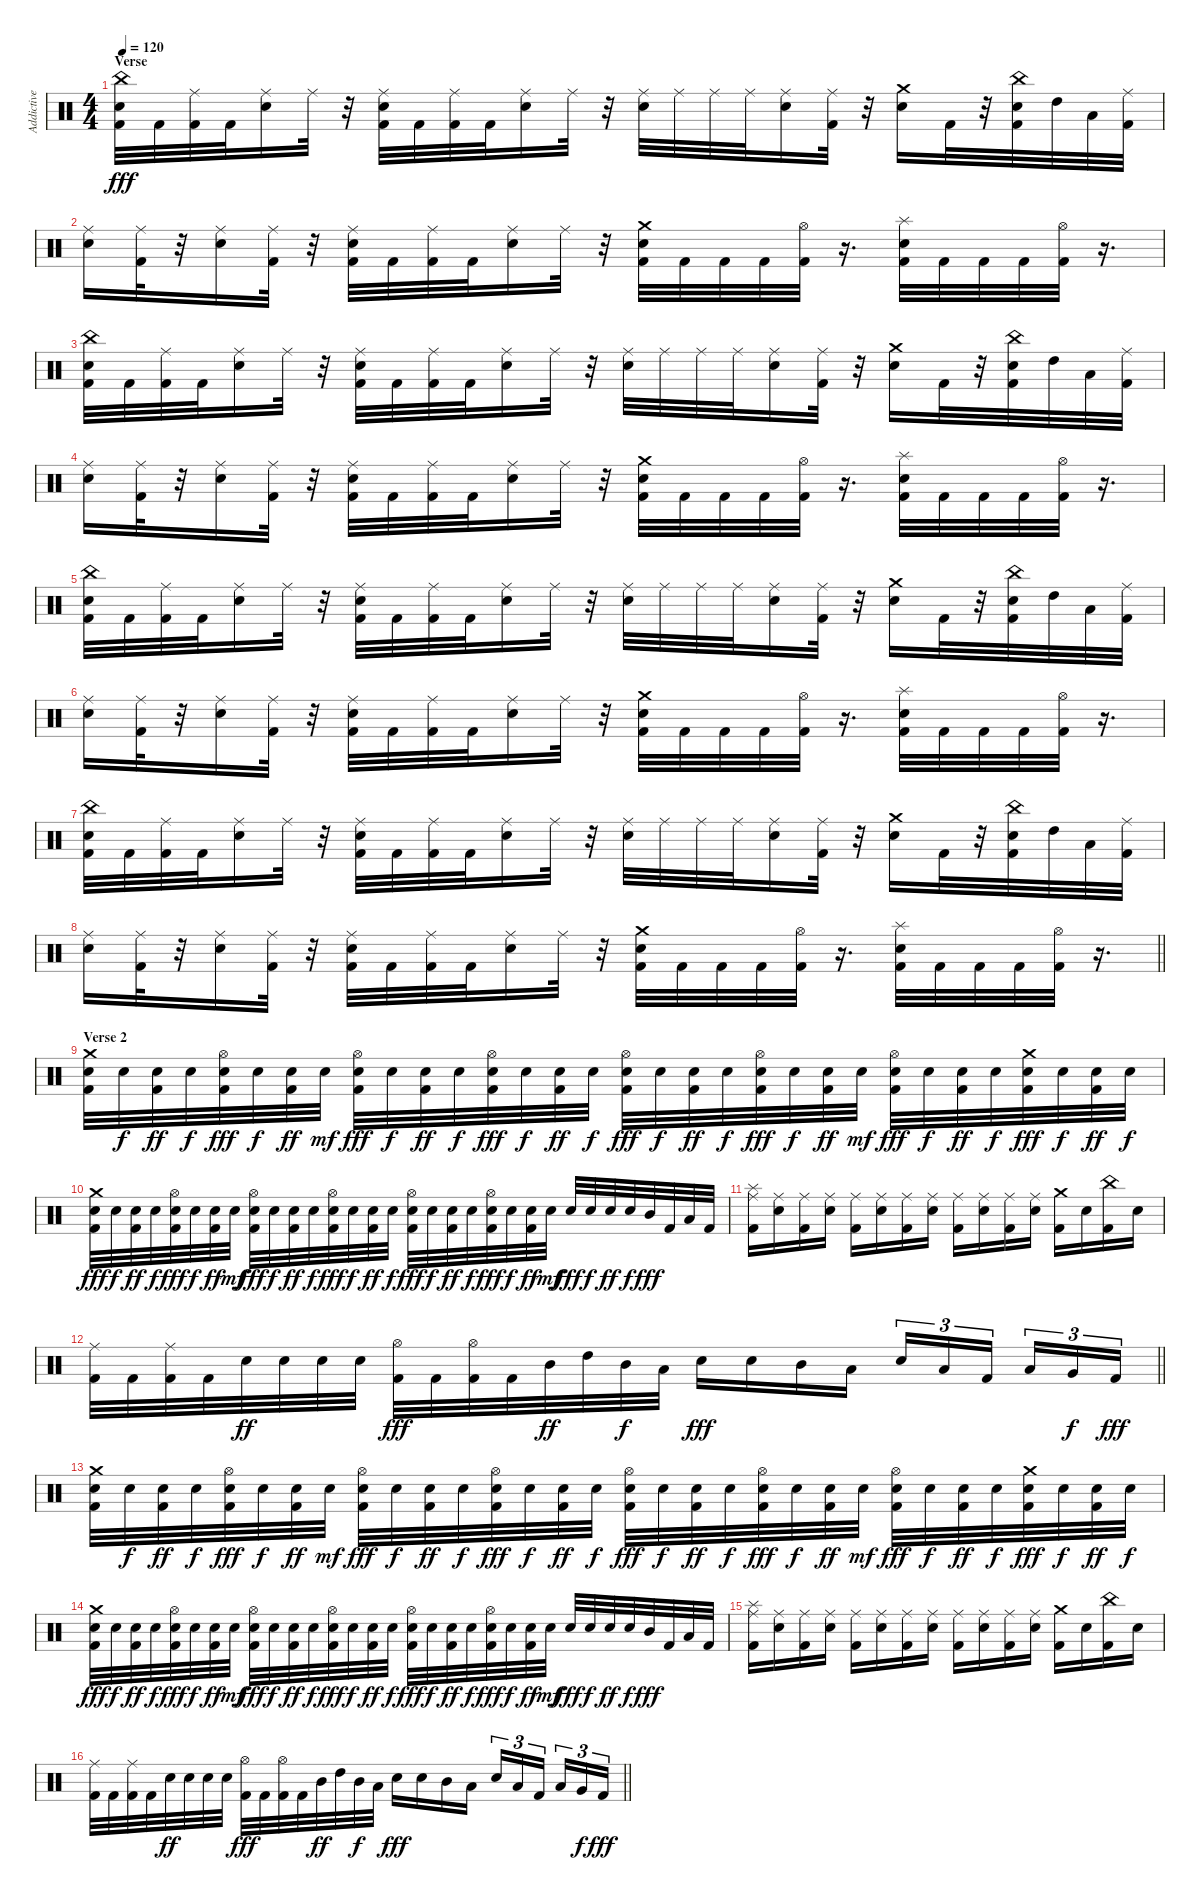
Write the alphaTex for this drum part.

\track ("Addictive Drums 07" "Addictive ") {instrument percussion}
\staff {score}
\articulation defaults
\ts (4 4)
\section ("" "Verse")
\tempo 120
\clef neutral
\ks c
("Kick (hit) 2" "Snare (hit) 2" "China (hit)").32{dy fff} "Kick (hit) 2".32 ("Kick (hit) 2" "Ride (middle)").32 "Kick (hit) 2".32 ("Snare (hit) 2" "Ride (middle)").16 "Ride (middle)".32 r.32 ("Kick (hit) 2" "Snare (hit) 2" "Ride (middle)").32 "Kick (hit) 2".32 ("Kick (hit) 2" "Ride (middle)").32 "Kick (hit) 2".32 ("Snare (hit) 2" "Ride (middle)").16 "Ride (middle)".32 r.32 ("Snare (hit) 2" "Ride (middle)").32 "Ride (middle)".32 "Ride (middle)".32 "Ride (middle)".32 ("Snare (hit) 2" "Ride (middle)").16 ("Kick (hit) 2" "Ride (middle)").32 r.32 ("Snare (hit) 2" "Crash medium (hit)").16 "Kick (hit) 2".32 r.32 ("Kick (hit) 2" "Snare (hit) 2" "China (hit)").32 "High Tom (hit)".32 "Low Tom (hit)".32 ("Kick (hit) 2" "Ride (middle)").32 |
("Snare (hit) 2" "Ride (middle)").16 ("Kick (hit) 2" "Ride (middle)").32 r.32 ("Snare (hit) 2" "Ride (middle)").16 ("Kick (hit) 2" "Ride (middle)").32 r.32 ("Kick (hit) 2" "Snare (hit) 2" "Ride (middle)").32 "Kick (hit) 2".32 ("Kick (hit) 2" "Ride (middle)").32 "Kick (hit) 2".32 ("Snare (hit) 2" "Ride (middle)").16 "Ride (middle)".32 r.32 ("Kick (hit) 2" "Snare (hit) 2" "Crash medium (hit)").32 "Kick (hit) 2".32 "Kick (hit) 2".32 "Kick (hit) 2".32 ("Kick (hit) 2" "Hi-Hat (open)").32 r.16{d} ("Kick (hit) 2" "Snare (hit) 2" "Splash (hit)").32 "Kick (hit) 2".32 "Kick (hit) 2".32 "Kick (hit) 2".32 ("Kick (hit) 2" "Hi-Hat (open)").32 r.16{d} |
("Kick (hit) 2" "Snare (hit) 2" "China (hit)").32 "Kick (hit) 2".32 ("Kick (hit) 2" "Ride (middle)").32 "Kick (hit) 2".32 ("Snare (hit) 2" "Ride (middle)").16 "Ride (middle)".32 r.32 ("Kick (hit) 2" "Snare (hit) 2" "Ride (middle)").32 "Kick (hit) 2".32 ("Kick (hit) 2" "Ride (middle)").32 "Kick (hit) 2".32 ("Snare (hit) 2" "Ride (middle)").16 "Ride (middle)".32 r.32 ("Snare (hit) 2" "Ride (middle)").32 "Ride (middle)".32 "Ride (middle)".32 "Ride (middle)".32 ("Snare (hit) 2" "Ride (middle)").16 ("Kick (hit) 2" "Ride (middle)").32 r.32 ("Snare (hit) 2" "Crash medium (hit)").16 "Kick (hit) 2".32 r.32 ("Kick (hit) 2" "Snare (hit) 2" "China (hit)").32 "High Tom (hit)".32 "Low Tom (hit)".32 ("Kick (hit) 2" "Ride (middle)").32 |
("Snare (hit) 2" "Ride (middle)").16 ("Kick (hit) 2" "Ride (middle)").32 r.32 ("Snare (hit) 2" "Ride (middle)").16 ("Kick (hit) 2" "Ride (middle)").32 r.32 ("Kick (hit) 2" "Snare (hit) 2" "Ride (middle)").32 "Kick (hit) 2".32 ("Kick (hit) 2" "Ride (middle)").32 "Kick (hit) 2".32 ("Snare (hit) 2" "Ride (middle)").16 "Ride (middle)".32 r.32 ("Kick (hit) 2" "Snare (hit) 2" "Crash medium (hit)").32 "Kick (hit) 2".32 "Kick (hit) 2".32 "Kick (hit) 2".32 ("Kick (hit) 2" "Hi-Hat (open)").32 r.16{d} ("Kick (hit) 2" "Snare (hit) 2" "Splash (hit)").32 "Kick (hit) 2".32 "Kick (hit) 2".32 "Kick (hit) 2".32 ("Kick (hit) 2" "Hi-Hat (open)").32 r.16{d} |
("Kick (hit) 2" "Snare (hit) 2" "China (hit)").32 "Kick (hit) 2".32 ("Kick (hit) 2" "Ride (middle)").32 "Kick (hit) 2".32 ("Snare (hit) 2" "Ride (middle)").16 "Ride (middle)".32 r.32 ("Kick (hit) 2" "Snare (hit) 2" "Ride (middle)").32 "Kick (hit) 2".32 ("Kick (hit) 2" "Ride (middle)").32 "Kick (hit) 2".32 ("Snare (hit) 2" "Ride (middle)").16 "Ride (middle)".32 r.32 ("Snare (hit) 2" "Ride (middle)").32 "Ride (middle)".32 "Ride (middle)".32 "Ride (middle)".32 ("Snare (hit) 2" "Ride (middle)").16 ("Kick (hit) 2" "Ride (middle)").32 r.32 ("Snare (hit) 2" "Crash medium (hit)").16 "Kick (hit) 2".32 r.32 ("Kick (hit) 2" "Snare (hit) 2" "China (hit)").32 "High Tom (hit)".32 "Low Tom (hit)".32 ("Kick (hit) 2" "Ride (middle)").32 |
("Snare (hit) 2" "Ride (middle)").16 ("Kick (hit) 2" "Ride (middle)").32 r.32 ("Snare (hit) 2" "Ride (middle)").16 ("Kick (hit) 2" "Ride (middle)").32 r.32 ("Kick (hit) 2" "Snare (hit) 2" "Ride (middle)").32 "Kick (hit) 2".32 ("Kick (hit) 2" "Ride (middle)").32 "Kick (hit) 2".32 ("Snare (hit) 2" "Ride (middle)").16 "Ride (middle)".32 r.32 ("Kick (hit) 2" "Snare (hit) 2" "Crash medium (hit)").32 "Kick (hit) 2".32 "Kick (hit) 2".32 "Kick (hit) 2".32 ("Kick (hit) 2" "Hi-Hat (open)").32 r.16{d} ("Kick (hit) 2" "Snare (hit) 2" "Splash (hit)").32 "Kick (hit) 2".32 "Kick (hit) 2".32 "Kick (hit) 2".32 ("Kick (hit) 2" "Hi-Hat (open)").32 r.16{d} |
("Kick (hit) 2" "Snare (hit) 2" "China (hit)").32 "Kick (hit) 2".32 ("Kick (hit) 2" "Ride (middle)").32 "Kick (hit) 2".32 ("Snare (hit) 2" "Ride (middle)").16 "Ride (middle)".32 r.32 ("Kick (hit) 2" "Snare (hit) 2" "Ride (middle)").32 "Kick (hit) 2".32 ("Kick (hit) 2" "Ride (middle)").32 "Kick (hit) 2".32 ("Snare (hit) 2" "Ride (middle)").16 "Ride (middle)".32 r.32 ("Snare (hit) 2" "Ride (middle)").32 "Ride (middle)".32 "Ride (middle)".32 "Ride (middle)".32 ("Snare (hit) 2" "Ride (middle)").16 ("Kick (hit) 2" "Ride (middle)").32 r.32 ("Snare (hit) 2" "Crash medium (hit)").16 "Kick (hit) 2".32 r.32 ("Kick (hit) 2" "Snare (hit) 2" "China (hit)").32 "High Tom (hit)".32 "Low Tom (hit)".32 ("Kick (hit) 2" "Ride (middle)").32 |
\barLineRight lightlight
("Snare (hit) 2" "Ride (middle)").16 ("Kick (hit) 2" "Ride (middle)").32 r.32 ("Snare (hit) 2" "Ride (middle)").16 ("Kick (hit) 2" "Ride (middle)").32 r.32 ("Kick (hit) 2" "Snare (hit) 2" "Ride (middle)").32 "Kick (hit) 2".32 ("Kick (hit) 2" "Ride (middle)").32 "Kick (hit) 2".32 ("Snare (hit) 2" "Ride (middle)").16 "Ride (middle)".32 r.32 ("Kick (hit) 2" "Snare (hit) 2" "Crash medium (hit)").32 "Kick (hit) 2".32 "Kick (hit) 2".32 "Kick (hit) 2".32 ("Kick (hit) 2" "Hi-Hat (open)").32 r.16{d} ("Kick (hit) 2" "Snare (hit) 2" "Splash (hit)").32 "Kick (hit) 2".32 "Kick (hit) 2".32 "Kick (hit) 2".32 ("Kick (hit) 2" "Hi-Hat (open)").32 r.16{d} |
\section ("" "Verse 2")
("Kick (hit) 2" "Snare (hit) 2" "Crash medium (hit)").32 "Snare (hit) 2".32{dy f} ("Kick (hit) 2" "Snare (hit) 2").32{dy ff} "Snare (hit) 2".32{dy f} ("Kick (hit) 2" "Snare (hit) 2" "Hi-Hat (open)").32{dy fff} "Snare (hit) 2".32{dy f} ("Kick (hit) 2" "Snare (hit) 2").32{dy ff} "Snare (hit) 2".32{dy mf} ("Kick (hit) 2" "Snare (hit) 2" "Hi-Hat (open)").32{dy fff} "Snare (hit) 2".32{dy f} ("Kick (hit) 2" "Snare (hit) 2").32{dy ff} "Snare (hit) 2".32{dy f} ("Kick (hit) 2" "Snare (hit) 2" "Hi-Hat (open)").32{dy fff} "Snare (hit) 2".32{dy f} ("Kick (hit) 2" "Snare (hit) 2").32{dy ff} "Snare (hit) 2".32{dy f} ("Kick (hit) 2" "Snare (hit) 2" "Hi-Hat (open)").32{dy fff} "Snare (hit) 2".32{dy f} ("Kick (hit) 2" "Snare (hit) 2").32{dy ff} "Snare (hit) 2".32{dy f} ("Kick (hit) 2" "Snare (hit) 2" "Hi-Hat (open)").32{dy fff} "Snare (hit) 2".32{dy f} ("Kick (hit) 2" "Snare (hit) 2").32{dy ff} "Snare (hit) 2".32{dy mf} ("Kick (hit) 2" "Snare (hit) 2" "Hi-Hat (open)").32{dy fff} "Snare (hit) 2".32{dy f} ("Kick (hit) 2" "Snare (hit) 2").32{dy ff} "Snare (hit) 2".32{dy f} ("Kick (hit) 2" "Snare (hit) 2" "Crash medium (hit)").32{dy fff} "Snare (hit) 2".32{dy f} ("Kick (hit) 2" "Snare (hit) 2").32{dy ff} "Snare (hit) 2".32{dy f} |
("Kick (hit) 2" "Snare (hit) 2" "Crash medium (hit)").32{dy fff} "Snare (hit) 2".32{dy f} ("Kick (hit) 2" "Snare (hit) 2").32{dy ff} "Snare (hit) 2".32{dy f} ("Kick (hit) 2" "Snare (hit) 2" "Hi-Hat (open)").32{dy fff} "Snare (hit) 2".32{dy f} ("Kick (hit) 2" "Snare (hit) 2").32{dy ff} "Snare (hit) 2".32{dy mf} ("Kick (hit) 2" "Snare (hit) 2" "Hi-Hat (open)").32{dy fff} "Snare (hit) 2".32{dy f} ("Kick (hit) 2" "Snare (hit) 2").32{dy ff} "Snare (hit) 2".32{dy f} ("Kick (hit) 2" "Snare (hit) 2" "Hi-Hat (open)").32{dy fff} "Snare (hit) 2".32{dy f} ("Kick (hit) 2" "Snare (hit) 2").32{dy ff} "Snare (hit) 2".32{dy f} ("Kick (hit) 2" "Snare (hit) 2" "Hi-Hat (open)").32{dy fff} "Snare (hit) 2".32{dy f} ("Kick (hit) 2" "Snare (hit) 2").32{dy ff} "Snare (hit) 2".32{dy f} ("Kick (hit) 2" "Snare (hit) 2" "Hi-Hat (open)").32{dy fff} "Snare (hit) 2".32{dy f} ("Kick (hit) 2" "Snare (hit) 2").32{dy ff} "Snare (hit) 2".32{dy mf} "Snare (hit) 2".32{dy fff} "Snare (hit) 2".32{dy f} "Snare (hit) 2".32{dy ff} "Snare (hit) 2".32{dy f} "Mid Tom (hit)".32{dy fff} "Kick (hit) 2".32 "Low Tom (hit)".32 "Kick (hit) 2".32 |
("Kick (hit) 2" "Ride (middle)" "Splash (hit)").16 ("Snare (hit) 2" "Ride (middle)").16 ("Kick (hit) 2" "Ride (middle)").16 ("Snare (hit) 2" "Ride (middle)").16 ("Kick (hit) 2" "Ride (middle)").16 ("Snare (hit) 2" "Ride (middle)").16 ("Kick (hit) 2" "Ride (middle)").16 ("Snare (hit) 2" "Ride (middle)").16 ("Kick (hit) 2" "Ride (middle)").16 ("Snare (hit) 2" "Ride (middle)").16 ("Kick (hit) 2" "Ride (middle)").16 ("Snare (hit) 2" "Ride (middle)").16 ("Kick (hit) 2" "Crash medium (hit)").16 "Snare (hit) 2".16 ("Kick (hit) 2" "China (hit)").16 "Snare (hit) 2".16 |
\barLineRight lightlight
("Kick (hit) 2" "Ride (middle)").32 "Kick (hit) 2".32 ("Kick (hit) 2" "Ride (middle)").32 "Kick (hit) 2".32 "Snare (hit) 2".32{dy ff} "Snare (hit) 2".32 "Snare (hit) 2".32 "Snare (hit) 2".32 ("Kick (hit) 2" "Hi-Hat (open)").32{dy fff} "Kick (hit) 2".32 ("Kick (hit) 2" "Hi-Hat (open)").32 "Kick (hit) 2".32 "Mid Tom (hit)".32{dy ff} "High Tom (hit)".32 "Mid Tom (hit)".32{dy f} "Low Tom (hit)".32 "Snare (hit) 2".16{dy fff} "Snare (hit) 2".16 "Mid Tom (hit)".16 "Low Tom (hit)".16 "Snare (hit) 2".16{tu (3 2)} "Low Tom (hit)".16{tu (3 2)} "Kick (hit) 2".16{tu (3 2) beam splitsecondary} "Low Tom (hit)".16{tu (3 2)} "Very Low Tom (hit)".16{tu (3 2) dy f} "Kick (hit) 2".16{tu (3 2) dy fff} |
("Kick (hit) 2" "Snare (hit) 2" "Crash medium (hit)").32 "Snare (hit) 2".32{dy f} ("Kick (hit) 2" "Snare (hit) 2").32{dy ff} "Snare (hit) 2".32{dy f} ("Kick (hit) 2" "Snare (hit) 2" "Hi-Hat (open)").32{dy fff} "Snare (hit) 2".32{dy f} ("Kick (hit) 2" "Snare (hit) 2").32{dy ff} "Snare (hit) 2".32{dy mf} ("Kick (hit) 2" "Snare (hit) 2" "Hi-Hat (open)").32{dy fff} "Snare (hit) 2".32{dy f} ("Kick (hit) 2" "Snare (hit) 2").32{dy ff} "Snare (hit) 2".32{dy f} ("Kick (hit) 2" "Snare (hit) 2" "Hi-Hat (open)").32{dy fff} "Snare (hit) 2".32{dy f} ("Kick (hit) 2" "Snare (hit) 2").32{dy ff} "Snare (hit) 2".32{dy f} ("Kick (hit) 2" "Snare (hit) 2" "Hi-Hat (open)").32{dy fff} "Snare (hit) 2".32{dy f} ("Kick (hit) 2" "Snare (hit) 2").32{dy ff} "Snare (hit) 2".32{dy f} ("Kick (hit) 2" "Snare (hit) 2" "Hi-Hat (open)").32{dy fff} "Snare (hit) 2".32{dy f} ("Kick (hit) 2" "Snare (hit) 2").32{dy ff} "Snare (hit) 2".32{dy mf} ("Kick (hit) 2" "Snare (hit) 2" "Hi-Hat (open)").32{dy fff} "Snare (hit) 2".32{dy f} ("Kick (hit) 2" "Snare (hit) 2").32{dy ff} "Snare (hit) 2".32{dy f} ("Kick (hit) 2" "Snare (hit) 2" "Crash medium (hit)").32{dy fff} "Snare (hit) 2".32{dy f} ("Kick (hit) 2" "Snare (hit) 2").32{dy ff} "Snare (hit) 2".32{dy f} |
("Kick (hit) 2" "Snare (hit) 2" "Crash medium (hit)").32{dy fff} "Snare (hit) 2".32{dy f} ("Kick (hit) 2" "Snare (hit) 2").32{dy ff} "Snare (hit) 2".32{dy f} ("Kick (hit) 2" "Snare (hit) 2" "Hi-Hat (open)").32{dy fff} "Snare (hit) 2".32{dy f} ("Kick (hit) 2" "Snare (hit) 2").32{dy ff} "Snare (hit) 2".32{dy mf} ("Kick (hit) 2" "Snare (hit) 2" "Hi-Hat (open)").32{dy fff} "Snare (hit) 2".32{dy f} ("Kick (hit) 2" "Snare (hit) 2").32{dy ff} "Snare (hit) 2".32{dy f} ("Kick (hit) 2" "Snare (hit) 2" "Hi-Hat (open)").32{dy fff} "Snare (hit) 2".32{dy f} ("Kick (hit) 2" "Snare (hit) 2").32{dy ff} "Snare (hit) 2".32{dy f} ("Kick (hit) 2" "Snare (hit) 2" "Hi-Hat (open)").32{dy fff} "Snare (hit) 2".32{dy f} ("Kick (hit) 2" "Snare (hit) 2").32{dy ff} "Snare (hit) 2".32{dy f} ("Kick (hit) 2" "Snare (hit) 2" "Hi-Hat (open)").32{dy fff} "Snare (hit) 2".32{dy f} ("Kick (hit) 2" "Snare (hit) 2").32{dy ff} "Snare (hit) 2".32{dy mf} "Snare (hit) 2".32{dy fff} "Snare (hit) 2".32{dy f} "Snare (hit) 2".32{dy ff} "Snare (hit) 2".32{dy f} "Mid Tom (hit)".32{dy fff} "Kick (hit) 2".32 "Low Tom (hit)".32 "Kick (hit) 2".32 |
("Kick (hit) 2" "Ride (middle)" "Splash (hit)").16 ("Snare (hit) 2" "Ride (middle)").16 ("Kick (hit) 2" "Ride (middle)").16 ("Snare (hit) 2" "Ride (middle)").16 ("Kick (hit) 2" "Ride (middle)").16 ("Snare (hit) 2" "Ride (middle)").16 ("Kick (hit) 2" "Ride (middle)").16 ("Snare (hit) 2" "Ride (middle)").16 ("Kick (hit) 2" "Ride (middle)").16 ("Snare (hit) 2" "Ride (middle)").16 ("Kick (hit) 2" "Ride (middle)").16 ("Snare (hit) 2" "Ride (middle)").16 ("Kick (hit) 2" "Crash medium (hit)").16 "Snare (hit) 2".16 ("Kick (hit) 2" "China (hit)").16 "Snare (hit) 2".16 |
\barLineRight lightlight
("Kick (hit) 2" "Ride (middle)").32 "Kick (hit) 2".32 ("Kick (hit) 2" "Ride (middle)").32 "Kick (hit) 2".32 "Snare (hit) 2".32{dy ff} "Snare (hit) 2".32 "Snare (hit) 2".32 "Snare (hit) 2".32 ("Kick (hit) 2" "Hi-Hat (open)").32{dy fff} "Kick (hit) 2".32 ("Kick (hit) 2" "Hi-Hat (open)").32 "Kick (hit) 2".32 "Mid Tom (hit)".32{dy ff} "High Tom (hit)".32 "Mid Tom (hit)".32{dy f} "Low Tom (hit)".32 "Snare (hit) 2".16{dy fff} "Snare (hit) 2".16 "Mid Tom (hit)".16 "Low Tom (hit)".16 "Snare (hit) 2".16{tu (3 2)} "Low Tom (hit)".16{tu (3 2)} "Kick (hit) 2".16{tu (3 2) beam splitsecondary} "Low Tom (hit)".16{tu (3 2)} "Very Low Tom (hit)".16{tu (3 2) dy f} "Kick (hit) 2".16{tu (3 2) dy fff}
